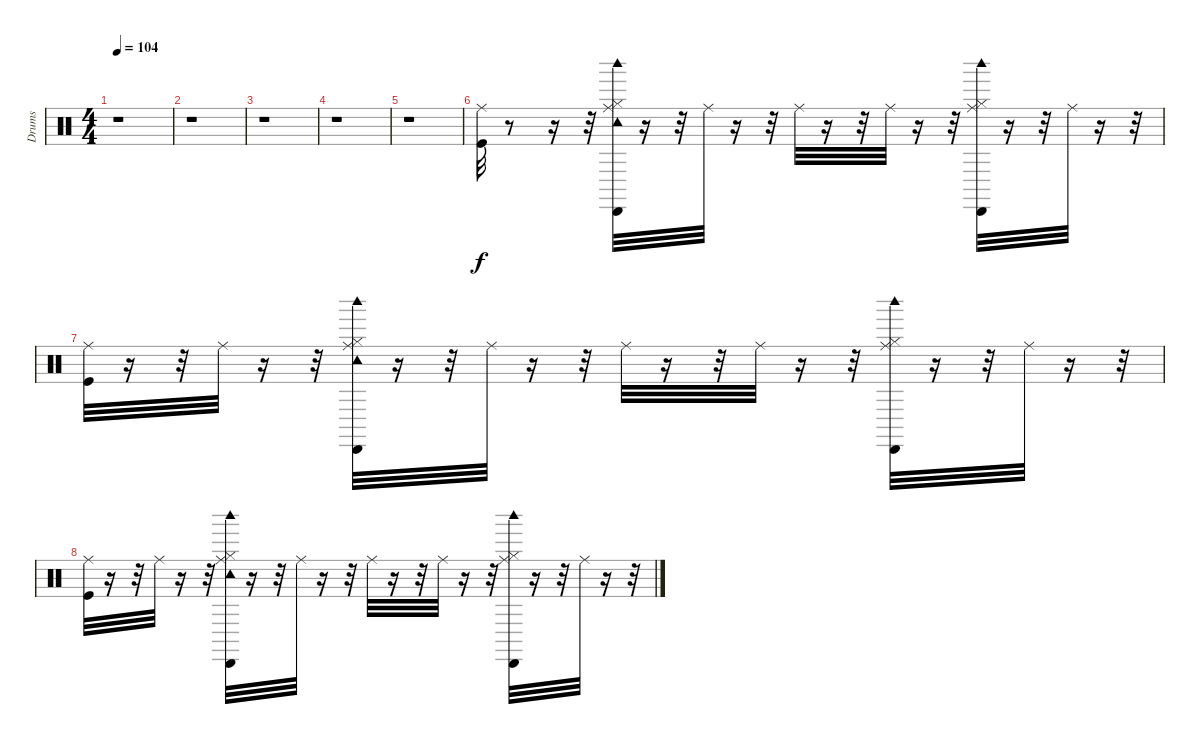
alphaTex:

\track ("Drums" "Drums") {instrument percussion}
\staff {score}
\articulation defaults
\ts (4 4)
\tempo 104
\clef neutral
\ks c
r.1{dy f} |
r.1 |
r.1 |
r.1 |
r.1 |
("Kick (hit)" "Ride (middle)").32 r.8 r.16 r.32 ("Hi-Hat (closed)" "Ride (middle)" "Tambourine (hit)" "Cabasa (hit)" "Woodblock high (hit)").32 r.16 r.32 "Ride (middle)".32 r.16 r.32 "Ride (middle)".32 r.16 r.32 "Ride (middle)".32 r.16 r.32 ("Hi-Hat (closed)" "Ride (middle)" "Cabasa (hit)" "Woodblock high (hit)").32 r.16 r.32 "Ride (middle)".32 r.16 r.32 |
("Kick (hit)" "Ride (middle)").32 r.16 r.32 "Ride (middle)".32 r.16 r.32 ("Hi-Hat (closed)" "Ride (middle)" "Tambourine (hit)" "Cabasa (hit)" "Woodblock high (hit)").32 r.16 r.32 "Ride (middle)".32 r.16 r.32 "Ride (middle)".32 r.16 r.32 "Ride (middle)".32 r.16 r.32 ("Hi-Hat (closed)" "Ride (middle)" "Cabasa (hit)" "Woodblock high (hit)").32 r.16 r.32 "Ride (middle)".32 r.16 r.32 |
("Kick (hit)" "Ride (middle)").32 r.16 r.32 "Ride (middle)".32 r.16 r.32 ("Hi-Hat (closed)" "Ride (middle)" "Tambourine (hit)" "Cabasa (hit)" "Woodblock high (hit)").32 r.16 r.32 "Ride (middle)".32 r.16 r.32 "Ride (middle)".32 r.16 r.32 "Ride (middle)".32 r.16 r.32 ("Hi-Hat (closed)" "Ride (middle)" "Cabasa (hit)" "Woodblock high (hit)").32 r.16 r.32 "Ride (middle)".32 r.16 r.32
